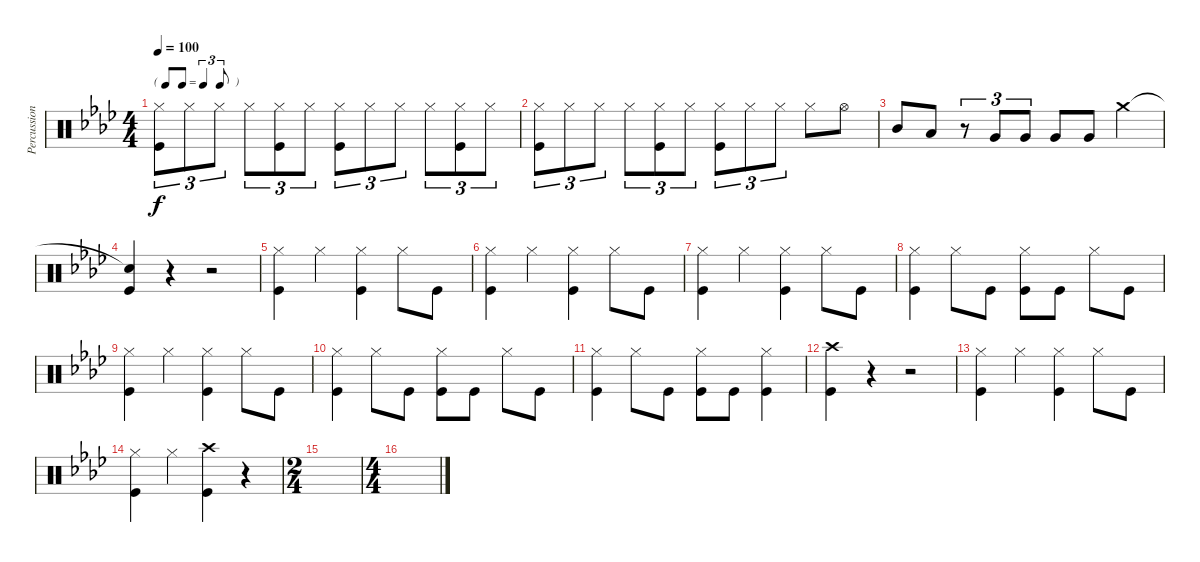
\track ("Percussion" "Percussion") {instrument percussion}
\staff {score}
\articulation defaults
\ts (4 4)
\tf triplet8th
\tempo 100
\clef neutral
\ks ab
("Hi-Hat (closed)" "Kick (hit)").8{tu (3 2) dy f} "Hi-Hat (closed)".8{tu (3 2)} "Hi-Hat (closed)".8{tu (3 2)} "Hi-Hat (closed)".8{tu (3 2)} ("Hi-Hat (closed)" "Kick (hit)").8{tu (3 2)} "Hi-Hat (closed)".8{tu (3 2)} ("Hi-Hat (closed)" "Kick (hit)").8{tu (3 2)} "Hi-Hat (closed)".8{tu (3 2)} "Hi-Hat (closed)".8{tu (3 2)} "Hi-Hat (closed)".8{tu (3 2)} ("Hi-Hat (closed)" "Kick (hit)").8{tu (3 2)} "Hi-Hat (closed)".8{tu (3 2)} |
("Hi-Hat (closed)" "Kick (hit)").8{tu (3 2)} "Hi-Hat (closed)".8{tu (3 2)} "Hi-Hat (closed)".8{tu (3 2)} "Hi-Hat (closed)".8{tu (3 2)} ("Hi-Hat (closed)" "Kick (hit)").8{tu (3 2)} "Hi-Hat (closed)".8{tu (3 2)} ("Hi-Hat (closed)" "Kick (hit)").8{tu (3 2)} "Hi-Hat (closed)".8{tu (3 2)} "Hi-Hat (closed)".8{tu (3 2)} "Hi-Hat (closed)".8 "Hi-Hat (open)".8 |
"Mid Tom (hit)".8 "Low Tom (hit)".8 r.8{tu (3 2)} "Very Low Tom (hit)".8{tu (3 2)} "Very Low Tom (hit)".8{tu (3 2)} "Very Low Tom (hit)".8 "Very Low Tom (hit)".8 "Crash medium (hit)".4 |
("Snare (hit)"{t} "Kick (hit)").4 r.4 r.2 |
("Hi-Hat (closed)" "Kick (hit)").4 "Hi-Hat (closed)".4 ("Hi-Hat (closed)" "Kick (hit)").4 "Hi-Hat (closed)".8 "Kick (hit)".8 |
("Hi-Hat (closed)" "Kick (hit)").4 "Hi-Hat (closed)".4 ("Hi-Hat (closed)" "Kick (hit)").4 "Hi-Hat (closed)".8 "Kick (hit)".8 |
("Hi-Hat (closed)" "Kick (hit)").4 "Hi-Hat (closed)".4 ("Hi-Hat (closed)" "Kick (hit)").4 "Hi-Hat (closed)".8 "Kick (hit)".8 |
("Hi-Hat (closed)" "Kick (hit)").4 "Hi-Hat (closed)".8 "Kick (hit)".8 ("Hi-Hat (closed)" "Kick (hit)").8 "Kick (hit)".8 "Hi-Hat (closed)".8 "Kick (hit)".8 |
("Hi-Hat (closed)" "Kick (hit)").4 "Hi-Hat (closed)".4 ("Hi-Hat (closed)" "Kick (hit)").4 "Hi-Hat (closed)".8 "Kick (hit)".8 |
("Hi-Hat (closed)" "Kick (hit)").4 "Hi-Hat (closed)".8 "Kick (hit)".8 ("Hi-Hat (closed)" "Kick (hit)").8 "Kick (hit)".8 "Hi-Hat (closed)".8 "Kick (hit)".8 |
("Hi-Hat (closed)" "Kick (hit)").4 "Hi-Hat (closed)".8 "Kick (hit)".8 ("Hi-Hat (closed)" "Kick (hit)").8 "Kick (hit)".8 ("Hi-Hat (closed)" "Kick (hit)").4 |
("Crash high (hit)" "Kick (hit)").4 r.4 r.2 |
("Hi-Hat (closed)" "Kick (hit)").4 "Hi-Hat (closed)".4 ("Hi-Hat (closed)" "Kick (hit)").4 "Hi-Hat (closed)".8 "Kick (hit)".8 |
("Hi-Hat (closed)" "Kick (hit)").4 "Hi-Hat (closed)".4 ("Crash high (hit)" "Kick (hit)").4 r.4 |
\ts (2 4)
|
\ts (4 4)
